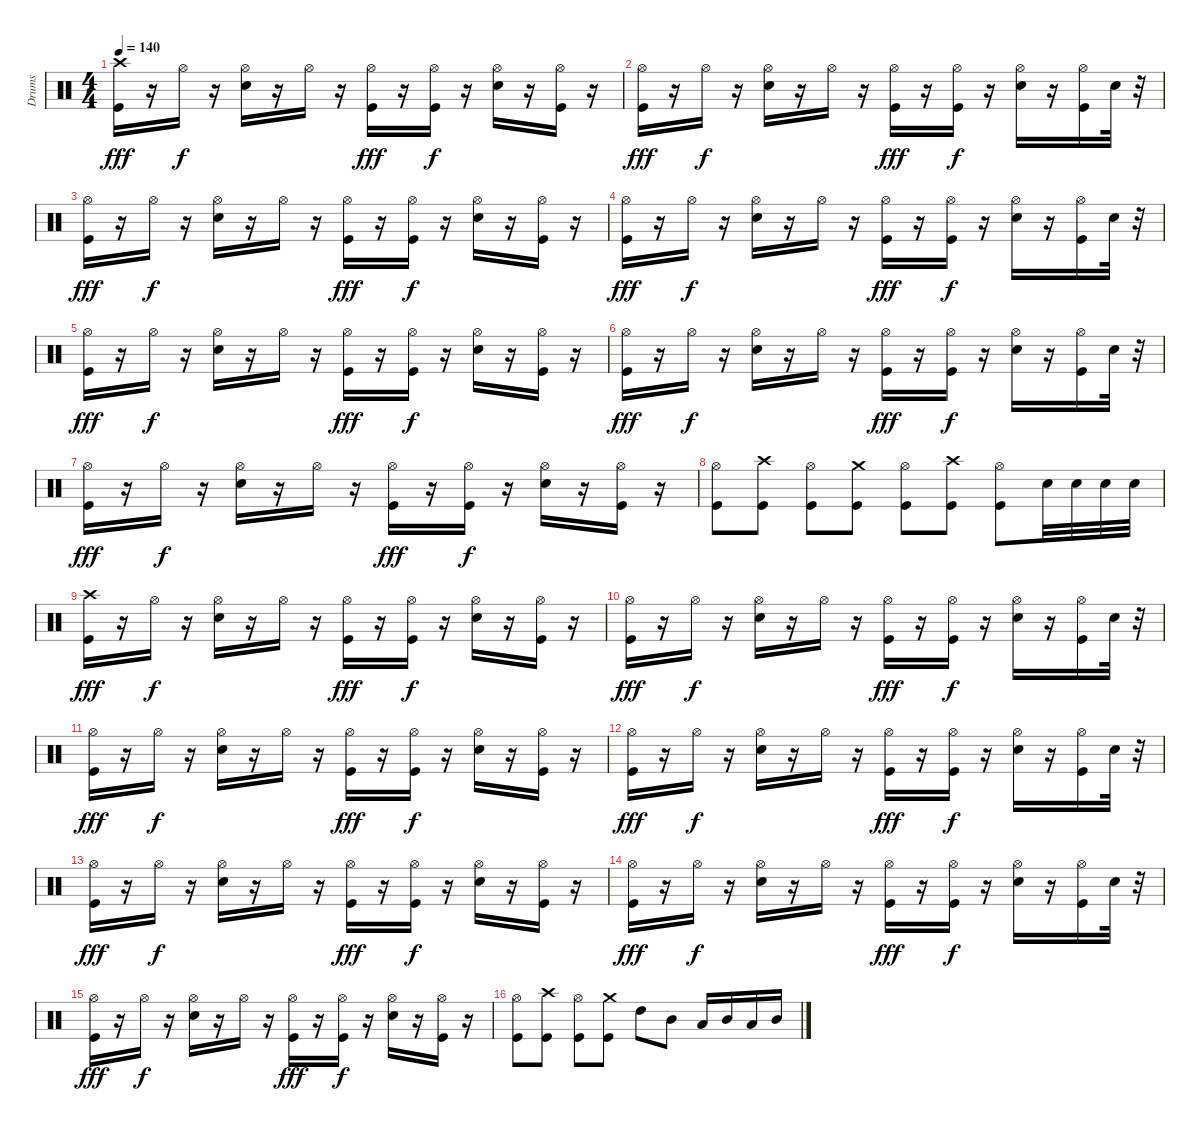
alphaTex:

\track ("Drums" "Drums") {instrument percussion}
\staff {score}
\articulation defaults
\ts (4 4)
\tempo 140
\clef neutral
\ks c
("Crash high (hit)" "Kick (hit)").16{dy fff} r.16 "Hi-Hat (open)".16{dy f} r.16 ("Hi-Hat (open)" "Electric Snare (hit)").16 r.16 "Hi-Hat (open)".16 r.16 ("Hi-Hat (open)" "Kick (hit)").16{dy fff} r.16 ("Hi-Hat (open)" "Kick (hit)").16{dy f} r.16 ("Hi-Hat (open)" "Electric Snare (hit)").16 r.16 ("Hi-Hat (open)" "Kick (hit)").16 r.16 |
("Hi-Hat (open)" "Kick (hit)").16{dy fff} r.16 "Hi-Hat (open)".16{dy f} r.16 ("Hi-Hat (open)" "Electric Snare (hit)").16 r.16 "Hi-Hat (open)".16 r.16 ("Hi-Hat (open)" "Kick (hit)").16{dy fff} r.16 ("Hi-Hat (open)" "Kick (hit)").16{dy f} r.16 ("Hi-Hat (open)" "Electric Snare (hit)").16 r.16 ("Hi-Hat (open)" "Kick (hit)").16 "Electric Snare (hit)".32 r.32 |
("Hi-Hat (open)" "Kick (hit)").16{dy fff} r.16 "Hi-Hat (open)".16{dy f} r.16 ("Hi-Hat (open)" "Electric Snare (hit)").16 r.16 "Hi-Hat (open)".16 r.16 ("Hi-Hat (open)" "Kick (hit)").16{dy fff} r.16 ("Hi-Hat (open)" "Kick (hit)").16{dy f} r.16 ("Hi-Hat (open)" "Electric Snare (hit)").16 r.16 ("Hi-Hat (open)" "Kick (hit)").16 r.16 |
("Hi-Hat (open)" "Kick (hit)").16{dy fff} r.16 "Hi-Hat (open)".16{dy f} r.16 ("Hi-Hat (open)" "Electric Snare (hit)").16 r.16 "Hi-Hat (open)".16 r.16 ("Hi-Hat (open)" "Kick (hit)").16{dy fff} r.16 ("Hi-Hat (open)" "Kick (hit)").16{dy f} r.16 ("Hi-Hat (open)" "Electric Snare (hit)").16 r.16 ("Hi-Hat (open)" "Kick (hit)").16 "Electric Snare (hit)".32 r.32 |
("Hi-Hat (open)" "Kick (hit)").16{dy fff} r.16 "Hi-Hat (open)".16{dy f} r.16 ("Hi-Hat (open)" "Electric Snare (hit)").16 r.16 "Hi-Hat (open)".16 r.16 ("Hi-Hat (open)" "Kick (hit)").16{dy fff} r.16 ("Hi-Hat (open)" "Kick (hit)").16{dy f} r.16 ("Hi-Hat (open)" "Electric Snare (hit)").16 r.16 ("Hi-Hat (open)" "Kick (hit)").16 r.16 |
("Hi-Hat (open)" "Kick (hit)").16{dy fff} r.16 "Hi-Hat (open)".16{dy f} r.16 ("Hi-Hat (open)" "Electric Snare (hit)").16 r.16 "Hi-Hat (open)".16 r.16 ("Hi-Hat (open)" "Kick (hit)").16{dy fff} r.16 ("Hi-Hat (open)" "Kick (hit)").16{dy f} r.16 ("Hi-Hat (open)" "Electric Snare (hit)").16 r.16 ("Hi-Hat (open)" "Kick (hit)").16 "Electric Snare (hit)".32 r.32 |
("Hi-Hat (open)" "Kick (hit)").16{dy fff} r.16 "Hi-Hat (open)".16{dy f} r.16 ("Hi-Hat (open)" "Electric Snare (hit)").16 r.16 "Hi-Hat (open)".16 r.16 ("Hi-Hat (open)" "Kick (hit)").16{dy fff} r.16 ("Hi-Hat (open)" "Kick (hit)").16{dy f} r.16 ("Hi-Hat (open)" "Electric Snare (hit)").16 r.16 ("Hi-Hat (open)" "Kick (hit)").16 r.16 |
("Hi-Hat (open)" "Kick (hit)").8 ("Crash high (hit)" "Kick (hit)").8 ("Hi-Hat (open)" "Kick (hit)").8 ("Crash medium (hit)" "Kick (hit)").8 ("Hi-Hat (open)" "Kick (hit)").8 ("Crash high (hit)" "Kick (hit)").8 ("Hi-Hat (open)" "Kick (hit)").8 "Electric Snare (hit)".32 "Electric Snare (hit)".32 "Electric Snare (hit)".32 "Electric Snare (hit)".32 |
("Crash high (hit)" "Kick (hit)").16{dy fff} r.16 "Hi-Hat (open)".16{dy f} r.16 ("Hi-Hat (open)" "Electric Snare (hit)").16 r.16 "Hi-Hat (open)".16 r.16 ("Hi-Hat (open)" "Kick (hit)").16{dy fff} r.16 ("Hi-Hat (open)" "Kick (hit)").16{dy f} r.16 ("Hi-Hat (open)" "Electric Snare (hit)").16 r.16 ("Hi-Hat (open)" "Kick (hit)").16 r.16 |
("Hi-Hat (open)" "Kick (hit)").16{dy fff} r.16 "Hi-Hat (open)".16{dy f} r.16 ("Hi-Hat (open)" "Electric Snare (hit)").16 r.16 "Hi-Hat (open)".16 r.16 ("Hi-Hat (open)" "Kick (hit)").16{dy fff} r.16 ("Hi-Hat (open)" "Kick (hit)").16{dy f} r.16 ("Hi-Hat (open)" "Electric Snare (hit)").16 r.16 ("Hi-Hat (open)" "Kick (hit)").16 "Electric Snare (hit)".32 r.32 |
("Hi-Hat (open)" "Kick (hit)").16{dy fff} r.16 "Hi-Hat (open)".16{dy f} r.16 ("Hi-Hat (open)" "Electric Snare (hit)").16 r.16 "Hi-Hat (open)".16 r.16 ("Hi-Hat (open)" "Kick (hit)").16{dy fff} r.16 ("Hi-Hat (open)" "Kick (hit)").16{dy f} r.16 ("Hi-Hat (open)" "Electric Snare (hit)").16 r.16 ("Hi-Hat (open)" "Kick (hit)").16 r.16 |
("Hi-Hat (open)" "Kick (hit)").16{dy fff} r.16 "Hi-Hat (open)".16{dy f} r.16 ("Hi-Hat (open)" "Electric Snare (hit)").16 r.16 "Hi-Hat (open)".16 r.16 ("Hi-Hat (open)" "Kick (hit)").16{dy fff} r.16 ("Hi-Hat (open)" "Kick (hit)").16{dy f} r.16 ("Hi-Hat (open)" "Electric Snare (hit)").16 r.16 ("Hi-Hat (open)" "Kick (hit)").16 "Electric Snare (hit)".32 r.32 |
("Hi-Hat (open)" "Kick (hit)").16{dy fff} r.16 "Hi-Hat (open)".16{dy f} r.16 ("Hi-Hat (open)" "Electric Snare (hit)").16 r.16 "Hi-Hat (open)".16 r.16 ("Hi-Hat (open)" "Kick (hit)").16{dy fff} r.16 ("Hi-Hat (open)" "Kick (hit)").16{dy f} r.16 ("Hi-Hat (open)" "Electric Snare (hit)").16 r.16 ("Hi-Hat (open)" "Kick (hit)").16 r.16 |
("Hi-Hat (open)" "Kick (hit)").16{dy fff} r.16 "Hi-Hat (open)".16{dy f} r.16 ("Hi-Hat (open)" "Electric Snare (hit)").16 r.16 "Hi-Hat (open)".16 r.16 ("Hi-Hat (open)" "Kick (hit)").16{dy fff} r.16 ("Hi-Hat (open)" "Kick (hit)").16{dy f} r.16 ("Hi-Hat (open)" "Electric Snare (hit)").16 r.16 ("Hi-Hat (open)" "Kick (hit)").16 "Electric Snare (hit)".32 r.32 |
("Hi-Hat (open)" "Kick (hit)").16{dy fff} r.16 "Hi-Hat (open)".16{dy f} r.16 ("Hi-Hat (open)" "Electric Snare (hit)").16 r.16 "Hi-Hat (open)".16 r.16 ("Hi-Hat (open)" "Kick (hit)").16{dy fff} r.16 ("Hi-Hat (open)" "Kick (hit)").16{dy f} r.16 ("Hi-Hat (open)" "Electric Snare (hit)").16 r.16 ("Hi-Hat (open)" "Kick (hit)").16 r.16 |
("Hi-Hat (open)" "Kick (hit)").8 ("Crash high (hit)" "Kick (hit)").8 ("Hi-Hat (open)" "Kick (hit)").8 ("Crash medium (hit)" "Kick (hit)").8 "High Tom (hit)".8 "Mid Tom (hit)".8 "Low Tom (hit)".16 "Mid Tom (hit)".16 "Low Tom (hit)".16 "Mid Tom (hit)".16
